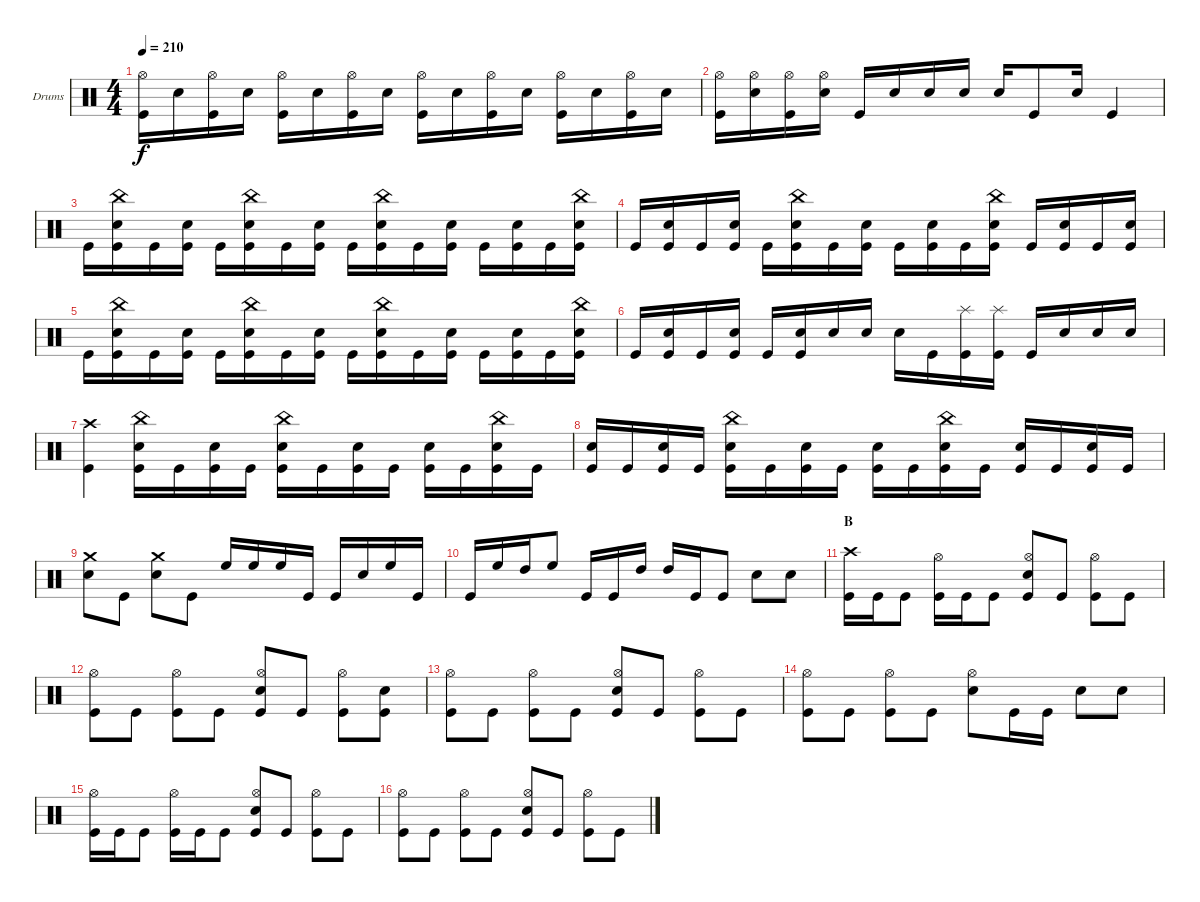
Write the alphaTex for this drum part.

\bracketExtendMode groupsimilarinstruments
\firstSystemTrackNameOrientation horizontal
\otherSystemsTrackNameOrientation horizontal
\track ("Drumkit" "Drums") {instrument percussion}
\staff {score}
\articulation defaults
\ts (4 4)
\tempo 210
\clef neutral
\ks c
("Kick (hit)" "Hi-Hat (open)").16{dy f} "Snare (hit) 2".16 ("Kick (hit)" "Hi-Hat (open)").16 "Snare (hit) 2".16 ("Kick (hit)" "Hi-Hat (open)").16 "Snare (hit) 2".16 ("Kick (hit)" "Hi-Hat (open)").16 "Snare (hit) 2".16 ("Kick (hit)" "Hi-Hat (open)").16 "Snare (hit) 2".16 ("Kick (hit)" "Hi-Hat (open)").16 "Snare (hit) 2".16 ("Kick (hit)" "Hi-Hat (open)").16 "Snare (hit) 2".16 ("Kick (hit)" "Hi-Hat (open)").16 "Snare (hit) 2".16 |
("Hi-Hat (open)" "Kick (hit)").16 ("Hi-Hat (open)" "Snare (hit) 2").16 ("Hi-Hat (open)" "Kick (hit)").16 ("Hi-Hat (open)" "Snare (hit) 2").16 "Kick (hit)".16 "Snare (hit) 2".16 "Snare (hit) 2".16 "Snare (hit) 2".16 "Snare (hit) 2".16 "Kick (hit)".8 "Snare (hit) 2".16 "Kick (hit)".4 |
"Kick (hit)".16 ("China (hit)" "Snare (hit) 2" "Kick (hit)").16 "Kick (hit)".16 ("Snare (hit) 2" "Kick (hit)").16 "Kick (hit)".16 ("China (hit)" "Snare (hit) 2" "Kick (hit)").16 "Kick (hit)".16 ("Snare (hit) 2" "Kick (hit)").16 "Kick (hit)".16 ("China (hit)" "Snare (hit) 2" "Kick (hit)").16 "Kick (hit)".16 ("Snare (hit) 2" "Kick (hit)").16 "Kick (hit)".16 ("Snare (hit) 2" "Kick (hit)").16 "Kick (hit)".16 ("China (hit)" "Snare (hit) 2" "Kick (hit)").16 |
"Kick (hit)".16 ("Snare (hit) 2" "Kick (hit)").16 "Kick (hit)".16 ("Snare (hit) 2" "Kick (hit)").16 "Kick (hit)".16 ("China (hit)" "Snare (hit) 2" "Kick (hit)").16 "Kick (hit)".16 ("Snare (hit) 2" "Kick (hit)").16 "Kick (hit)".16 ("Snare (hit) 2" "Kick (hit)").16 "Kick (hit)".16 ("China (hit)" "Snare (hit) 2" "Kick (hit)").16 "Kick (hit)".16 ("Snare (hit) 2" "Kick (hit)").16 "Kick (hit)".16 ("Snare (hit) 2" "Kick (hit)").16 |
"Kick (hit)".16 ("China (hit)" "Snare (hit) 2" "Kick (hit)").16 "Kick (hit)".16 ("Snare (hit) 2" "Kick (hit)").16 "Kick (hit)".16 ("China (hit)" "Snare (hit) 2" "Kick (hit)").16 "Kick (hit)".16 ("Snare (hit) 2" "Kick (hit)").16 "Kick (hit)".16 ("China (hit)" "Snare (hit) 2" "Kick (hit)").16 "Kick (hit)".16 ("Snare (hit) 2" "Kick (hit)").16 "Kick (hit)".16 ("Snare (hit) 2" "Kick (hit)").16 "Kick (hit)".16 ("China (hit)" "Snare (hit) 2" "Kick (hit)").16 |
"Kick (hit)".16 ("Snare (hit) 2" "Kick (hit)").16 "Kick (hit)".16 ("Snare (hit) 2" "Kick (hit)").16 "Kick (hit)".16 ("Snare (hit) 2" "Kick (hit)").16 "Snare (hit) 2".16 "Snare (hit) 2".16 "Snare (hit) 2".16 "Kick (hit)".16 ("Splash (hit)" "Kick (hit)").16 ("Splash (hit)" "Kick (hit)").16 "Kick (hit)".16 "Snare (hit) 2".16 "Snare (hit) 2".16 "Snare (hit) 2".16 |
("Crash high (hit)" "Kick (hit)").4 ("China (hit)" "Snare (hit) 2" "Kick (hit)").16 "Kick (hit)".16 ("Snare (hit) 2" "Kick (hit)").16 "Kick (hit)".16 ("China (hit)" "Snare (hit) 2" "Kick (hit)").16 "Kick (hit)".16 ("Snare (hit) 2" "Kick (hit)").16 "Kick (hit)".16 ("Snare (hit) 2" "Kick (hit)").16 "Kick (hit)".16 ("China (hit)" "Snare (hit) 2" "Kick (hit)").16 "Kick (hit)".16 |
("Snare (hit) 2" "Kick (hit)").16 "Kick (hit)".16 ("Snare (hit) 2" "Kick (hit)").16 "Kick (hit)".16 ("China (hit)" "Snare (hit) 2" "Kick (hit)").16 "Kick (hit)".16 ("Snare (hit) 2" "Kick (hit)").16 "Kick (hit)".16 ("Snare (hit) 2" "Kick (hit)").16 "Kick (hit)".16 ("China (hit)" "Snare (hit) 2" "Kick (hit)").16 "Kick (hit)".16 ("Snare (hit) 2" "Kick (hit)").16 "Kick (hit)".16 ("Snare (hit) 2" "Kick (hit)").16 "Kick (hit)".16 |
("Crash medium (hit)" "Snare (hit) 2").8 "Kick (hit)".8 ("Crash medium (hit)" "Snare (hit) 2").8 "Kick (hit)".8 "High Floor Tom (hit)".16 "High Floor Tom (hit)".16 "High Floor Tom (hit)".16 "Kick (hit)".16 "Kick (hit)".16 "Snare (hit) 2".16 "High Floor Tom (hit)".16 "Kick (hit)".16 |
"Kick (hit)".16 "High Floor Tom (hit)".16 "High Tom (hit)".16 "High Floor Tom (hit)".8 "Kick (hit)".16 "Kick (hit)".16 "High Tom (hit)".16 "High Tom (hit)".16 "Kick (hit)".16 "Kick (hit)".8 "Snare (hit) 2".8 "Snare (hit) 2".8 |
\section ("" "B")
("Crash high (hit)" "Kick (hit)").16 "Kick (hit)".16 "Kick (hit)".8 ("Hi-Hat (open)" "Kick (hit)").16 "Kick (hit)".16 "Kick (hit)".8 ("Hi-Hat (open)" "Snare (hit) 2" "Kick (hit)").8 "Kick (hit)".8 ("Hi-Hat (open)" "Kick (hit)").8 "Kick (hit)".8 |
("Hi-Hat (open)" "Kick (hit)").8 "Kick (hit)".8 ("Hi-Hat (open)" "Kick (hit)").8 "Kick (hit)".8 ("Hi-Hat (open)" "Snare (hit) 2" "Kick (hit)").8 "Kick (hit)".8 ("Hi-Hat (open)" "Kick (hit)").8 ("Snare (hit) 2" "Kick (hit)").8 |
("Hi-Hat (open)" "Kick (hit)").8 "Kick (hit)".8 ("Hi-Hat (open)" "Kick (hit)").8 "Kick (hit)".8 ("Hi-Hat (open)" "Snare (hit) 2" "Kick (hit)").8 "Kick (hit)".8 ("Hi-Hat (open)" "Kick (hit)").8 "Kick (hit)".8 |
("Hi-Hat (open)" "Kick (hit)").8 "Kick (hit)".8 ("Hi-Hat (open)" "Kick (hit)").8 "Kick (hit)".8 ("Hi-Hat (open)" "Snare (hit) 2").8 "Kick (hit)".16 "Kick (hit)".16 "Snare (hit) 2".8 "Snare (hit) 2".8 |
("Hi-Hat (open)" "Kick (hit)").16 "Kick (hit)".16 "Kick (hit)".8 ("Hi-Hat (open)" "Kick (hit)").16 "Kick (hit)".16 "Kick (hit)".8 ("Hi-Hat (open)" "Snare (hit) 2" "Kick (hit)").8 "Kick (hit)".8 ("Hi-Hat (open)" "Kick (hit)").8 "Kick (hit)".8 |
("Hi-Hat (open)" "Kick (hit)").8 "Kick (hit)".8 ("Hi-Hat (open)" "Kick (hit)").8 "Kick (hit)".8 ("Hi-Hat (open)" "Snare (hit) 2" "Kick (hit)").8 "Kick (hit)".8 ("Hi-Hat (open)" "Kick (hit)").8 "Kick (hit)".8
